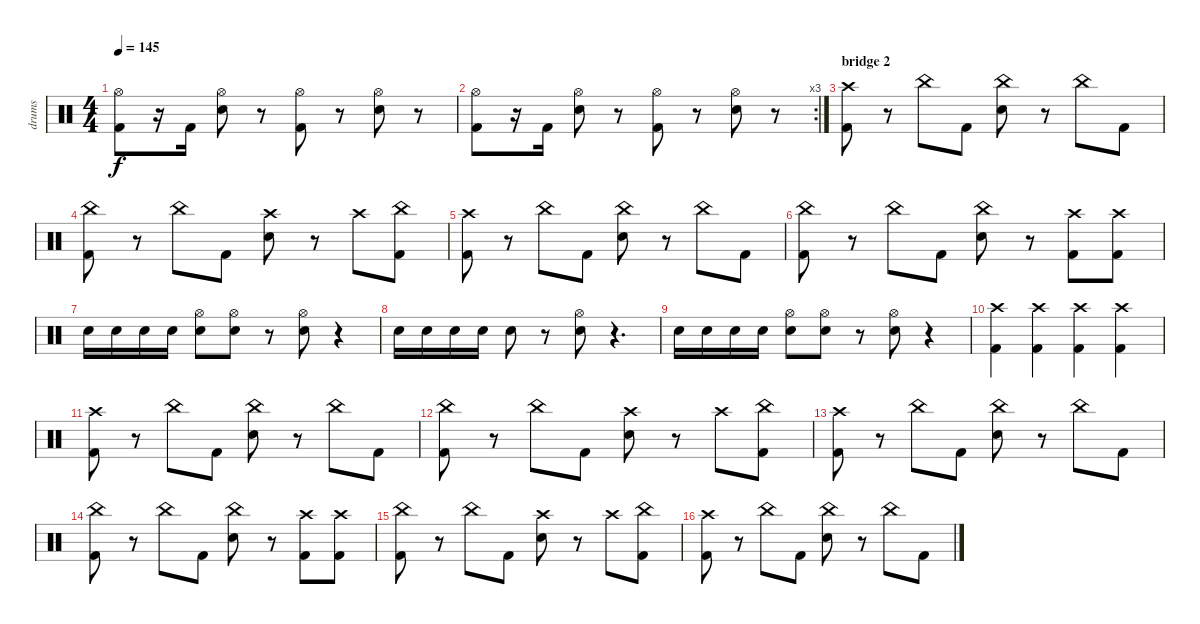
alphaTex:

\track ("drums" "drums") {instrument percussion}
\staff {score}
\articulation defaults
\ts (4 4)
\tempo 145
\clef neutral
\ks c
("Kick (hit) 2" "Hi-Hat (open)").8{dy f} r.16 "Kick (hit) 2".16 ("Snare (hit) 2" "Hi-Hat (open)").8 r.8 ("Kick (hit) 2" "Hi-Hat (open)").8 r.8 ("Snare (hit) 2" "Hi-Hat (open)").8 r.8 |
\rc 3
("Kick (hit) 2" "Hi-Hat (open)").8 r.16 "Kick (hit) 2".16 ("Snare (hit) 2" "Hi-Hat (open)").8 r.8 ("Kick (hit) 2" "Hi-Hat (open)").8 r.8 ("Snare (hit) 2" "Hi-Hat (open)").8 r.8 |
\section ("" "bridge 2")
("Kick (hit) 2" "Crash high (hit)").8 r.8 "China (hit)".8 "Kick (hit) 2".8 ("Snare (hit) 2" "China (hit)").8 r.8 "China (hit)".8 "Kick (hit) 2".8 |
("Kick (hit) 2" "China (hit)").8 r.8 "China (hit)".8 "Kick (hit) 2".8 ("Snare (hit) 2" "Crash high (hit)").8 r.8 "Crash high (hit)".8 ("Kick (hit) 2" "China (hit)").8 |
("Kick (hit) 2" "Crash high (hit)").8 r.8 "China (hit)".8 "Kick (hit) 2".8 ("Snare (hit) 2" "China (hit)").8 r.8 "China (hit)".8 "Kick (hit) 2".8 |
("Kick (hit) 2" "China (hit)").8 r.8 "China (hit)".8 "Kick (hit) 2".8 ("Snare (hit) 2" "China (hit)").8 r.8 ("Kick (hit) 2" "Crash high (hit)").8 ("Kick (hit) 2" "Crash high (hit)").8 |
"Snare (hit) 2".16 "Snare (hit) 2".16 "Snare (hit) 2".16 "Snare (hit) 2".16 ("Snare (hit) 2" "Hi-Hat (open)").8 ("Snare (hit) 2" "Hi-Hat (open)").8 r.8 ("Snare (hit) 2" "Hi-Hat (open)").8 r.4 |
"Snare (hit) 2".16 "Snare (hit) 2".16 "Snare (hit) 2".16 "Snare (hit) 2".16 "Snare (hit) 2".8 r.8 ("Snare (hit) 2" "Hi-Hat (open)").8 r.4{d} |
"Snare (hit) 2".16 "Snare (hit) 2".16 "Snare (hit) 2".16 "Snare (hit) 2".16 ("Snare (hit) 2" "Hi-Hat (open)").8 ("Snare (hit) 2" "Hi-Hat (open)").8 r.8 ("Snare (hit) 2" "Hi-Hat (open)").8 r.4 |
("Kick (hit) 2" "Crash high (hit)").4 ("Kick (hit) 2" "Crash high (hit)").4 ("Kick (hit) 2" "Crash high (hit)").4 ("Kick (hit) 2" "Crash high (hit)").4 |
("Kick (hit) 2" "Crash high (hit)").8 r.8 "China (hit)".8 "Kick (hit) 2".8 ("Snare (hit) 2" "China (hit)").8 r.8 "China (hit)".8 "Kick (hit) 2".8 |
("Kick (hit) 2" "China (hit)").8 r.8 "China (hit)".8 "Kick (hit) 2".8 ("Snare (hit) 2" "Crash high (hit)").8 r.8 "Crash high (hit)".8 ("Kick (hit) 2" "China (hit)").8 |
("Kick (hit) 2" "Crash high (hit)").8 r.8 "China (hit)".8 "Kick (hit) 2".8 ("Snare (hit) 2" "China (hit)").8 r.8 "China (hit)".8 "Kick (hit) 2".8 |
("Kick (hit) 2" "China (hit)").8 r.8 "China (hit)".8 "Kick (hit) 2".8 ("Snare (hit) 2" "China (hit)").8 r.8 ("Kick (hit) 2" "Crash high (hit)").8 ("Kick (hit) 2" "Crash high (hit)").8 |
("Kick (hit) 2" "China (hit)").8 r.8 "China (hit)".8 "Kick (hit) 2".8 ("Snare (hit) 2" "Crash high (hit)").8 r.8 "Crash high (hit)".8 ("Kick (hit) 2" "China (hit)").8 |
("Kick (hit) 2" "Crash high (hit)").8 r.8 "China (hit)".8 "Kick (hit) 2".8 ("Snare (hit) 2" "China (hit)").8 r.8 "China (hit)".8 "Kick (hit) 2".8
